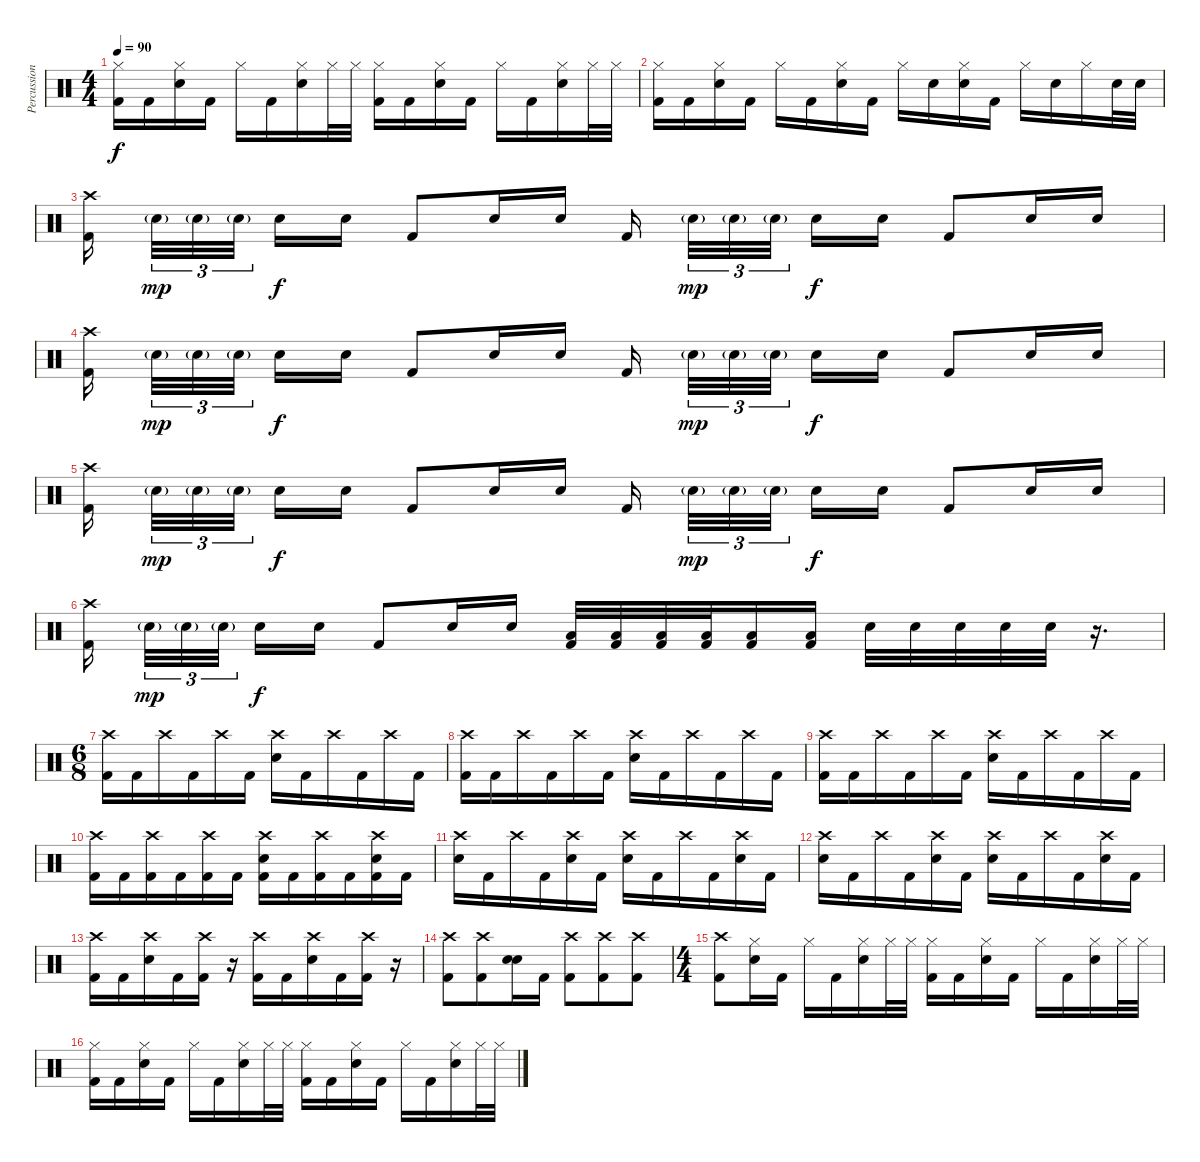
\track ("Percussion" "Percussion") {instrument percussion}
\staff {score}
\articulation defaults
\ts (4 4)
\tempo 90
\clef neutral
\ks c
("Hi-Hat (closed)" "Kick (hit) 2").16{dy f} "Kick (hit) 2".16 ("Hi-Hat (closed)" "Electric Snare (hit)").16 "Kick (hit) 2".16 "Hi-Hat (closed)".16 "Kick (hit) 2".16 ("Hi-Hat (closed)" "Electric Snare (hit)").16 "Hi-Hat (closed)".32 "Hi-Hat (closed)".32 ("Hi-Hat (closed)" "Kick (hit) 2").16 "Kick (hit) 2".16 ("Hi-Hat (closed)" "Electric Snare (hit)").16 "Kick (hit) 2".16 "Hi-Hat (closed)".16 "Kick (hit) 2".16 ("Hi-Hat (closed)" "Electric Snare (hit)").16 "Hi-Hat (closed)".32 "Hi-Hat (closed)".32 |
("Hi-Hat (closed)" "Kick (hit) 2").16 "Kick (hit) 2".16 ("Hi-Hat (closed)" "Electric Snare (hit)").16 "Kick (hit) 2".16 "Hi-Hat (closed)".16 "Kick (hit) 2".16 ("Hi-Hat (closed)" "Electric Snare (hit)").16 "Kick (hit) 2".16 "Hi-Hat (closed)".16 "Electric Snare (hit)".16 ("Hi-Hat (closed)" "Electric Snare (hit)").16 "Kick (hit) 2".16 "Hi-Hat (closed)".16 "Electric Snare (hit)".16 "Hi-Hat (closed)".16 "Electric Snare (hit)".32 "Electric Snare (hit)".32 |
("Crash high (hit)" "Kick (hit) 2").16{beam splitsecondary} "Electric Snare (hit)"{g}.32{tu (3 2) dy mp} "Electric Snare (hit)"{g}.32{tu (3 2)} "Electric Snare (hit)"{g}.32{tu (3 2) beam splitsecondary} "Electric Snare (hit)".16{dy f} "Electric Snare (hit)".16 "Kick (hit) 2".8 "Electric Snare (hit)".16 "Electric Snare (hit)".16 "Kick (hit) 2".16{beam splitsecondary} "Electric Snare (hit)"{g}.32{tu (3 2) dy mp} "Electric Snare (hit)"{g}.32{tu (3 2)} "Electric Snare (hit)"{g}.32{tu (3 2) beam splitsecondary} "Electric Snare (hit)".16{dy f} "Electric Snare (hit)".16 "Kick (hit) 2".8 "Electric Snare (hit)".16 "Electric Snare (hit)".16 |
("Crash high (hit)" "Kick (hit) 2").16{beam splitsecondary} "Electric Snare (hit)"{g}.32{tu (3 2) dy mp} "Electric Snare (hit)"{g}.32{tu (3 2)} "Electric Snare (hit)"{g}.32{tu (3 2) beam splitsecondary} "Electric Snare (hit)".16{dy f} "Electric Snare (hit)".16 "Kick (hit) 2".8 "Electric Snare (hit)".16 "Electric Snare (hit)".16 "Kick (hit) 2".16{beam splitsecondary} "Electric Snare (hit)"{g}.32{tu (3 2) dy mp} "Electric Snare (hit)"{g}.32{tu (3 2)} "Electric Snare (hit)"{g}.32{tu (3 2) beam splitsecondary} "Electric Snare (hit)".16{dy f} "Electric Snare (hit)".16 "Kick (hit) 2".8 "Electric Snare (hit)".16 "Electric Snare (hit)".16 |
("Crash high (hit)" "Kick (hit) 2").16{beam splitsecondary} "Electric Snare (hit)"{g}.32{tu (3 2) dy mp} "Electric Snare (hit)"{g}.32{tu (3 2)} "Electric Snare (hit)"{g}.32{tu (3 2) beam splitsecondary} "Electric Snare (hit)".16{dy f} "Electric Snare (hit)".16 "Kick (hit) 2".8 "Electric Snare (hit)".16 "Electric Snare (hit)".16 "Kick (hit) 2".16{beam splitsecondary} "Electric Snare (hit)"{g}.32{tu (3 2) dy mp} "Electric Snare (hit)"{g}.32{tu (3 2)} "Electric Snare (hit)"{g}.32{tu (3 2) beam splitsecondary} "Electric Snare (hit)".16{dy f} "Electric Snare (hit)".16 "Kick (hit) 2".8 "Electric Snare (hit)".16 "Electric Snare (hit)".16 |
("Crash high (hit)" "Kick (hit) 2").16{beam splitsecondary} "Electric Snare (hit)"{g}.32{tu (3 2) dy mp} "Electric Snare (hit)"{g}.32{tu (3 2)} "Electric Snare (hit)"{g}.32{tu (3 2) beam splitsecondary} "Electric Snare (hit)".16{dy f} "Electric Snare (hit)".16 "Kick (hit) 2".8 "Electric Snare (hit)".16 "Electric Snare (hit)".16 ("Low Floor Tom (hit)" "Kick (hit) 2").32 ("Low Floor Tom (hit)" "Kick (hit) 2").32 ("Low Floor Tom (hit)" "Kick (hit) 2").32 ("Low Floor Tom (hit)" "Kick (hit) 2").32 ("Low Floor Tom (hit)" "Kick (hit) 2").16 ("Low Floor Tom (hit)" "Kick (hit) 2").16 "Electric Snare (hit)".32 "Electric Snare (hit)".32 "Electric Snare (hit)".32 "Electric Snare (hit)".32 "Electric Snare (hit)".32 r.16{d} |
\ts (6 8)
("Crash high (hit)" "Kick (hit) 2").16 "Kick (hit) 2".16 "Crash high (hit)".16 "Kick (hit) 2".16 "Crash high (hit)".16 "Kick (hit) 2".16 ("Crash high (hit)" "Electric Snare (hit)").16 "Kick (hit) 2".16 "Crash high (hit)".16 "Kick (hit) 2".16 "Crash high (hit)".16 "Kick (hit) 2".16 |
("Crash high (hit)" "Kick (hit) 2").16 "Kick (hit) 2".16 "Crash high (hit)".16 "Kick (hit) 2".16 "Crash high (hit)".16 "Kick (hit) 2".16 ("Crash high (hit)" "Electric Snare (hit)").16 "Kick (hit) 2".16 "Crash high (hit)".16 "Kick (hit) 2".16 "Crash high (hit)".16 "Kick (hit) 2".16 |
("Crash high (hit)" "Kick (hit) 2").16 "Kick (hit) 2".16 "Crash high (hit)".16 "Kick (hit) 2".16 "Crash high (hit)".16 "Kick (hit) 2".16 ("Crash high (hit)" "Electric Snare (hit)").16 "Kick (hit) 2".16 "Crash high (hit)".16 "Kick (hit) 2".16 "Crash high (hit)".16 "Kick (hit) 2".16 |
("Crash high (hit)" "Kick (hit) 2").16 "Kick (hit) 2".16 ("Crash high (hit)" "Kick (hit) 2").16 "Kick (hit) 2".16 ("Crash high (hit)" "Kick (hit) 2").16 "Kick (hit) 2".16 ("Crash high (hit)" "Electric Snare (hit)" "Kick (hit) 2").16 "Kick (hit) 2".16 ("Crash high (hit)" "Kick (hit) 2").16 "Kick (hit) 2".16 ("Crash high (hit)" "Electric Snare (hit)" "Kick (hit) 2").16 "Kick (hit) 2".16 |
("Crash high (hit)" "Electric Snare (hit)").16 "Kick (hit) 2".16 "Crash high (hit)".16 "Kick (hit) 2".16 ("Crash high (hit)" "Electric Snare (hit)").16 "Kick (hit) 2".16 ("Crash high (hit)" "Electric Snare (hit)").16 "Kick (hit) 2".16 "Crash high (hit)".16 "Kick (hit) 2".16 ("Crash high (hit)" "Electric Snare (hit)").16 "Kick (hit) 2".16 |
("Crash high (hit)" "Electric Snare (hit)").16 "Kick (hit) 2".16 "Crash high (hit)".16 "Kick (hit) 2".16 ("Crash high (hit)" "Electric Snare (hit)").16 "Kick (hit) 2".16 ("Crash high (hit)" "Electric Snare (hit)").16 "Kick (hit) 2".16 "Crash high (hit)".16 "Kick (hit) 2".16 ("Crash high (hit)" "Electric Snare (hit)").16 "Kick (hit) 2".16 |
("Crash high (hit)" "Kick (hit) 2").16 "Kick (hit) 2".16 ("Crash high (hit)" "Electric Snare (hit)").16 "Kick (hit) 2".16 ("Crash high (hit)" "Kick (hit) 2").16 r.16 ("Crash high (hit)" "Kick (hit) 2").16 "Kick (hit) 2".16 ("Crash high (hit)" "Electric Snare (hit)").16 "Kick (hit) 2".16 ("Crash high (hit)" "Kick (hit) 2").16 r.16 |
("Crash high (hit)" "Kick (hit) 2").8 ("Crash high (hit)" "Kick (hit) 2").8 ("Electric Snare (hit)" "Electric Snare (hit)").16 "Kick (hit) 2".16 ("Crash high (hit)" "Kick (hit) 2").8 ("Crash high (hit)" "Kick (hit) 2").8 ("Crash high (hit)" "Kick (hit) 2").8 |
\ts (4 4)
("Crash high (hit)" "Kick (hit) 2").8 ("Hi-Hat (closed)" "Electric Snare (hit)").16 "Kick (hit) 2".16 "Hi-Hat (closed)".16 "Kick (hit) 2".16 ("Hi-Hat (closed)" "Electric Snare (hit)").16 "Hi-Hat (closed)".32 "Hi-Hat (closed)".32 ("Hi-Hat (closed)" "Kick (hit) 2").16 "Kick (hit) 2".16 ("Hi-Hat (closed)" "Electric Snare (hit)").16 "Kick (hit) 2".16 "Hi-Hat (closed)".16 "Kick (hit) 2".16 ("Hi-Hat (closed)" "Electric Snare (hit)").16 "Hi-Hat (closed)".32 "Hi-Hat (closed)".32 |
("Hi-Hat (closed)" "Kick (hit) 2").16 "Kick (hit) 2".16 ("Hi-Hat (closed)" "Electric Snare (hit)").16 "Kick (hit) 2".16 "Hi-Hat (closed)".16 "Kick (hit) 2".16 ("Hi-Hat (closed)" "Electric Snare (hit)").16 "Hi-Hat (closed)".32 "Hi-Hat (closed)".32 ("Hi-Hat (closed)" "Kick (hit) 2").16 "Kick (hit) 2".16 ("Hi-Hat (closed)" "Electric Snare (hit)").16 "Kick (hit) 2".16 "Hi-Hat (closed)".16 "Kick (hit) 2".16 ("Hi-Hat (closed)" "Electric Snare (hit)").16 "Hi-Hat (closed)".32 "Hi-Hat (closed)".32
